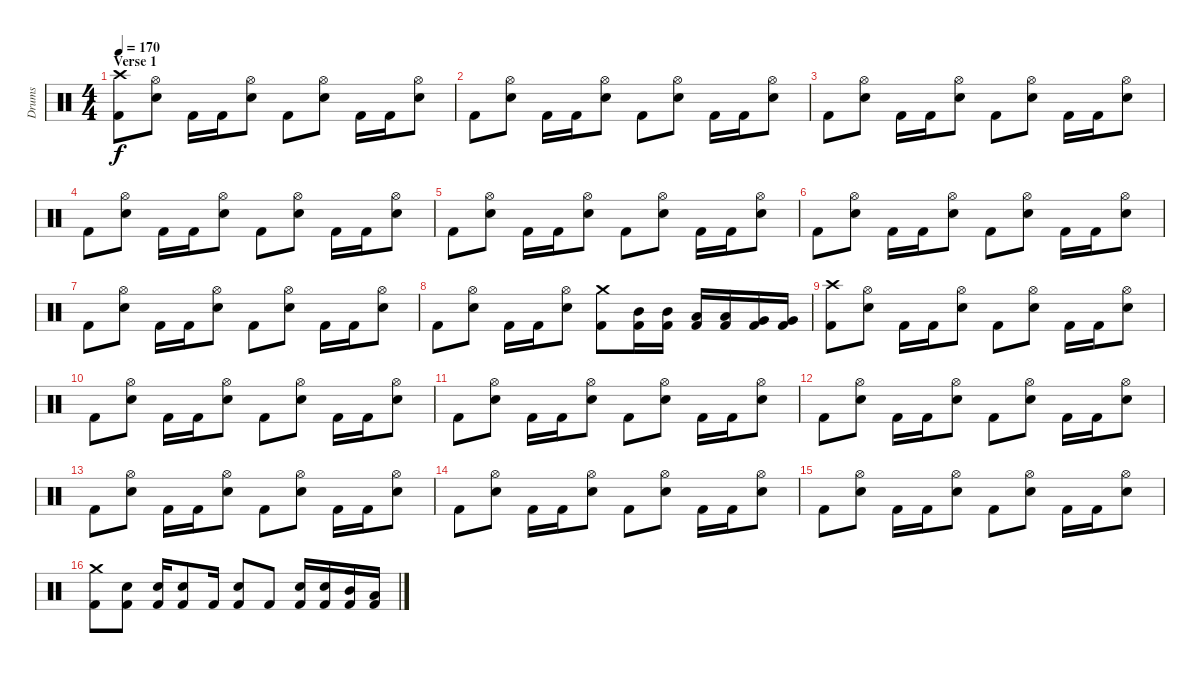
\track ("Drums" "Drums") {instrument percussion}
\staff {score}
\articulation defaults
\ts (4 4)
\section ("" "Verse 1")
\tempo 170
\clef neutral
\ks c
("Crash high (hit)" "Kick (hit) 2").8{dy f} ("Hi-Hat (open)" "Snare (hit) 2").8 "Kick (hit) 2".16 "Kick (hit) 2".16 ("Hi-Hat (open)" "Snare (hit) 2").8 "Kick (hit) 2".8 ("Hi-Hat (open)" "Snare (hit) 2").8 "Kick (hit) 2".16 "Kick (hit) 2".16 ("Hi-Hat (open)" "Snare (hit) 2").8 |
"Kick (hit) 2".8 ("Hi-Hat (open)" "Snare (hit) 2").8 "Kick (hit) 2".16 "Kick (hit) 2".16 ("Hi-Hat (open)" "Snare (hit) 2").8 "Kick (hit) 2".8 ("Hi-Hat (open)" "Snare (hit) 2").8 "Kick (hit) 2".16 "Kick (hit) 2".16 ("Hi-Hat (open)" "Snare (hit) 2").8 |
"Kick (hit) 2".8 ("Hi-Hat (open)" "Snare (hit) 2").8 "Kick (hit) 2".16 "Kick (hit) 2".16 ("Hi-Hat (open)" "Snare (hit) 2").8 "Kick (hit) 2".8 ("Hi-Hat (open)" "Snare (hit) 2").8 "Kick (hit) 2".16 "Kick (hit) 2".16 ("Hi-Hat (open)" "Snare (hit) 2").8 |
"Kick (hit) 2".8 ("Hi-Hat (open)" "Snare (hit) 2").8 "Kick (hit) 2".16 "Kick (hit) 2".16 ("Hi-Hat (open)" "Snare (hit) 2").8 "Kick (hit) 2".8 ("Hi-Hat (open)" "Snare (hit) 2").8 "Kick (hit) 2".16 "Kick (hit) 2".16 ("Hi-Hat (open)" "Snare (hit) 2").8 |
"Kick (hit) 2".8 ("Hi-Hat (open)" "Snare (hit) 2").8 "Kick (hit) 2".16 "Kick (hit) 2".16 ("Hi-Hat (open)" "Snare (hit) 2").8 "Kick (hit) 2".8 ("Hi-Hat (open)" "Snare (hit) 2").8 "Kick (hit) 2".16 "Kick (hit) 2".16 ("Hi-Hat (open)" "Snare (hit) 2").8 |
"Kick (hit) 2".8 ("Hi-Hat (open)" "Snare (hit) 2").8 "Kick (hit) 2".16 "Kick (hit) 2".16 ("Hi-Hat (open)" "Snare (hit) 2").8 "Kick (hit) 2".8 ("Hi-Hat (open)" "Snare (hit) 2").8 "Kick (hit) 2".16 "Kick (hit) 2".16 ("Hi-Hat (open)" "Snare (hit) 2").8 |
"Kick (hit) 2".8 ("Hi-Hat (open)" "Snare (hit) 2").8 "Kick (hit) 2".16 "Kick (hit) 2".16 ("Hi-Hat (open)" "Snare (hit) 2").8 "Kick (hit) 2".8 ("Hi-Hat (open)" "Snare (hit) 2").8 "Kick (hit) 2".16 "Kick (hit) 2".16 ("Hi-Hat (open)" "Snare (hit) 2").8 |
"Kick (hit) 2".8 ("Hi-Hat (open)" "Snare (hit) 2").8 "Kick (hit) 2".16 "Kick (hit) 2".16 ("Hi-Hat (open)" "Snare (hit) 2").8 ("Crash medium (hit)" "Kick (hit) 2").8 ("Mid Tom (hit)" "Kick (hit) 2").16 ("Mid Tom (hit)" "Kick (hit) 2").16 ("Low Tom (hit)" "Kick (hit) 2").16 ("Low Tom (hit)" "Kick (hit) 2").16 ("Very Low Tom (hit)" "Kick (hit) 2").16 ("Very Low Tom (hit)" "Kick (hit) 2").16 |
("Crash high (hit)" "Kick (hit) 2").8 ("Hi-Hat (open)" "Snare (hit) 2").8 "Kick (hit) 2".16 "Kick (hit) 2".16 ("Hi-Hat (open)" "Snare (hit) 2").8 "Kick (hit) 2".8 ("Hi-Hat (open)" "Snare (hit) 2").8 "Kick (hit) 2".16 "Kick (hit) 2".16 ("Hi-Hat (open)" "Snare (hit) 2").8 |
"Kick (hit) 2".8 ("Hi-Hat (open)" "Snare (hit) 2").8 "Kick (hit) 2".16 "Kick (hit) 2".16 ("Hi-Hat (open)" "Snare (hit) 2").8 "Kick (hit) 2".8 ("Hi-Hat (open)" "Snare (hit) 2").8 "Kick (hit) 2".16 "Kick (hit) 2".16 ("Hi-Hat (open)" "Snare (hit) 2").8 |
"Kick (hit) 2".8 ("Hi-Hat (open)" "Snare (hit) 2").8 "Kick (hit) 2".16 "Kick (hit) 2".16 ("Hi-Hat (open)" "Snare (hit) 2").8 "Kick (hit) 2".8 ("Hi-Hat (open)" "Snare (hit) 2").8 "Kick (hit) 2".16 "Kick (hit) 2".16 ("Hi-Hat (open)" "Snare (hit) 2").8 |
"Kick (hit) 2".8 ("Hi-Hat (open)" "Snare (hit) 2").8 "Kick (hit) 2".16 "Kick (hit) 2".16 ("Hi-Hat (open)" "Snare (hit) 2").8 "Kick (hit) 2".8 ("Hi-Hat (open)" "Snare (hit) 2").8 "Kick (hit) 2".16 "Kick (hit) 2".16 ("Hi-Hat (open)" "Snare (hit) 2").8 |
"Kick (hit) 2".8 ("Hi-Hat (open)" "Snare (hit) 2").8 "Kick (hit) 2".16 "Kick (hit) 2".16 ("Hi-Hat (open)" "Snare (hit) 2").8 "Kick (hit) 2".8 ("Hi-Hat (open)" "Snare (hit) 2").8 "Kick (hit) 2".16 "Kick (hit) 2".16 ("Hi-Hat (open)" "Snare (hit) 2").8 |
"Kick (hit) 2".8 ("Hi-Hat (open)" "Snare (hit) 2").8 "Kick (hit) 2".16 "Kick (hit) 2".16 ("Hi-Hat (open)" "Snare (hit) 2").8 "Kick (hit) 2".8 ("Hi-Hat (open)" "Snare (hit) 2").8 "Kick (hit) 2".16 "Kick (hit) 2".16 ("Hi-Hat (open)" "Snare (hit) 2").8 |
"Kick (hit) 2".8 ("Hi-Hat (open)" "Snare (hit) 2").8 "Kick (hit) 2".16 "Kick (hit) 2".16 ("Hi-Hat (open)" "Snare (hit) 2").8 "Kick (hit) 2".8 ("Hi-Hat (open)" "Snare (hit) 2").8 "Kick (hit) 2".16 "Kick (hit) 2".16 ("Hi-Hat (open)" "Snare (hit) 2").8 |
("Crash medium (hit)" "Kick (hit) 2").8 ("Snare (hit) 2" "Kick (hit) 2").8 ("Snare (hit) 2" "Kick (hit) 2").16 ("Snare (hit) 2" "Kick (hit) 2").8 "Kick (hit) 2".16 ("Snare (hit) 2" "Kick (hit) 2").8 "Kick (hit) 2".8 ("Snare (hit) 2" "Kick (hit) 2").16 ("Snare (hit) 2" "Kick (hit) 2").16 ("Mid Tom (hit)" "Kick (hit) 2").16 ("Low Tom (hit)" "Kick (hit) 2").16
